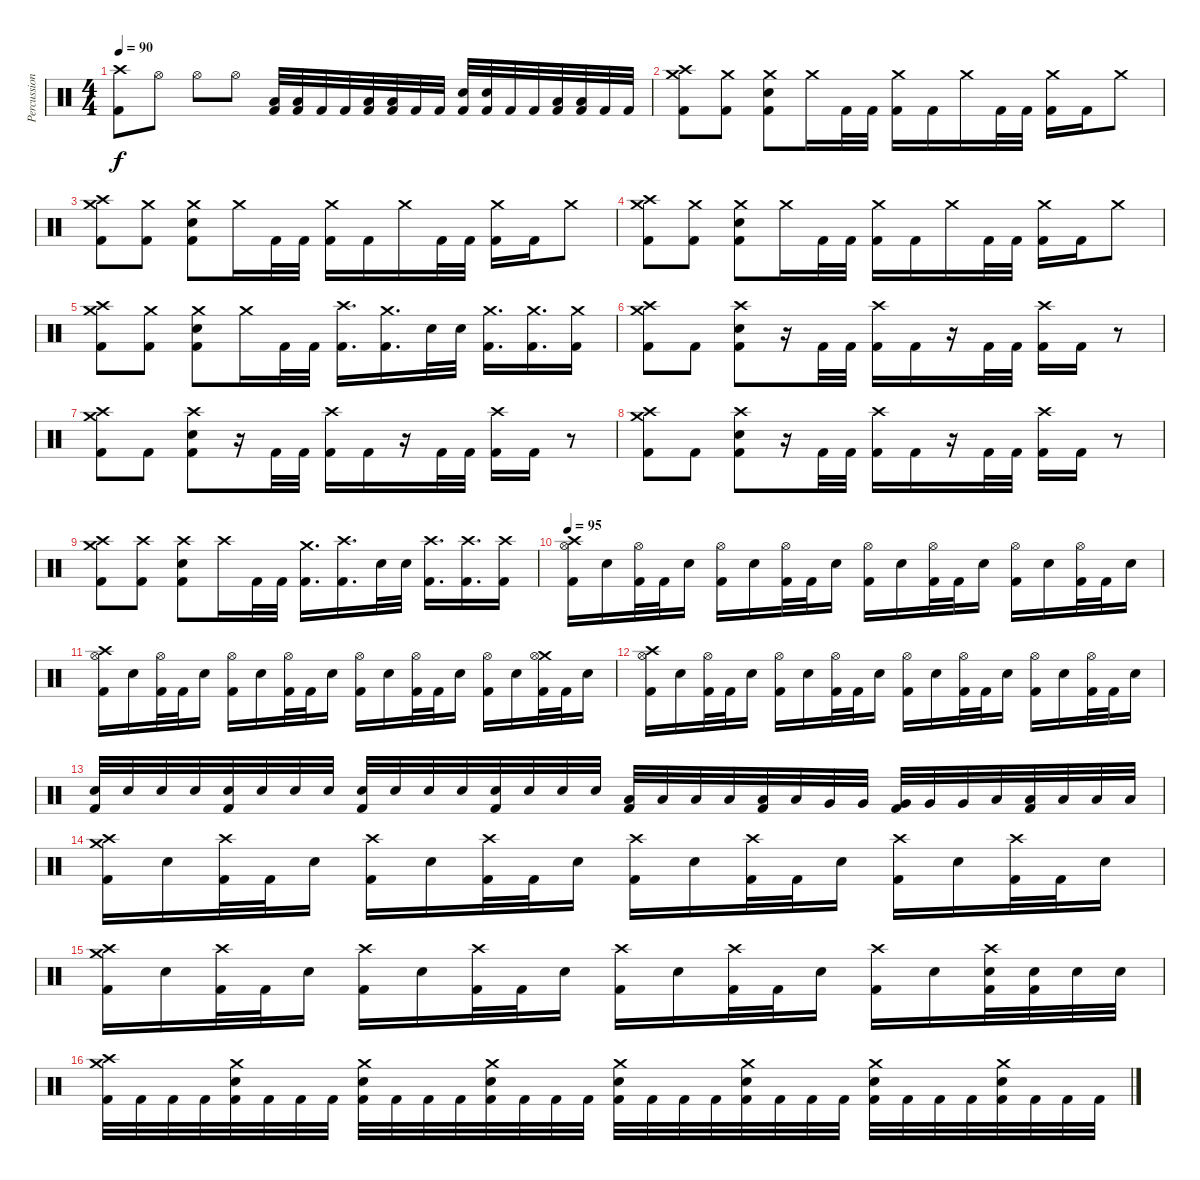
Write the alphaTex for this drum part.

\track ("Percussion" "Percussion") {instrument percussion}
\staff {score}
\articulation defaults
\ts (4 4)
\tempo 90
\clef neutral
\ks c
("Crash high (hit)" "Kick (hit) 2").8{dy f} "Hi-Hat (open)".8 "Hi-Hat (open)".8 "Hi-Hat (open)".8 ("Low Tom (hit)" "Kick (hit) 2").32 ("Low Tom (hit)" "Kick (hit) 2").32 "Kick (hit) 2".32 "Kick (hit) 2".32 ("Low Floor Tom (hit)" "Kick (hit) 2").32 ("Low Floor Tom (hit)" "Kick (hit) 2").32 "Kick (hit) 2".32 "Kick (hit) 2".32 ("Electric Snare (hit)" "Kick (hit) 2").32 ("Electric Snare (hit)" "Kick (hit) 2").32 "Kick (hit) 2".32 "Kick (hit) 2".32 ("Low Floor Tom (hit)" "Kick (hit) 2").32 ("Low Floor Tom (hit)" "Kick (hit) 2").32 "Kick (hit) 2".32 "Kick (hit) 2".32 |
("Crash high (hit)" "Crash medium (hit)" "Kick (hit) 2").8 ("Crash medium (hit)" "Kick (hit) 2").8 ("Crash medium (hit)" "Electric Snare (hit)" "Kick (hit) 2").8 "Crash medium (hit)".16 "Kick (hit) 2".32 "Kick (hit) 2".32 ("Crash medium (hit)" "Kick (hit) 2").16 "Kick (hit) 2".16 "Crash medium (hit)".16 "Kick (hit) 2".32 "Kick (hit) 2".32 ("Crash medium (hit)" "Kick (hit) 2").16 "Kick (hit) 2".16 "Crash medium (hit)".8 |
("Crash high (hit)" "Crash medium (hit)" "Kick (hit) 2").8 ("Crash medium (hit)" "Kick (hit) 2").8 ("Crash medium (hit)" "Electric Snare (hit)" "Kick (hit) 2").8 "Crash medium (hit)".16 "Kick (hit) 2".32 "Kick (hit) 2".32 ("Crash medium (hit)" "Kick (hit) 2").16 "Kick (hit) 2".16 "Crash medium (hit)".16 "Kick (hit) 2".32 "Kick (hit) 2".32 ("Crash medium (hit)" "Kick (hit) 2").16 "Kick (hit) 2".16 "Crash medium (hit)".8 |
("Crash high (hit)" "Crash medium (hit)" "Kick (hit) 2").8 ("Crash medium (hit)" "Kick (hit) 2").8 ("Crash medium (hit)" "Electric Snare (hit)" "Kick (hit) 2").8 "Crash medium (hit)".16 "Kick (hit) 2".32 "Kick (hit) 2".32 ("Crash medium (hit)" "Kick (hit) 2").16 "Kick (hit) 2".16 "Crash medium (hit)".16 "Kick (hit) 2".32 "Kick (hit) 2".32 ("Crash medium (hit)" "Kick (hit) 2").16 "Kick (hit) 2".16 "Crash medium (hit)".8 |
("Crash high (hit)" "Crash medium (hit)" "Kick (hit) 2").8 ("Crash medium (hit)" "Kick (hit) 2").8 ("Crash medium (hit)" "Electric Snare (hit)" "Kick (hit) 2").8 "Crash medium (hit)".16 "Kick (hit) 2".32 "Kick (hit) 2".32 ("Crash high (hit)" "Kick (hit) 2").16{d} ("Crash medium (hit)" "Kick (hit) 2").16{d} "Electric Snare (hit)".32 "Electric Snare (hit)".32 ("Crash medium (hit)" "Kick (hit) 2").16{d} ("Crash medium (hit)" "Kick (hit) 2").16{d} ("Crash medium (hit)" "Kick (hit) 2").16 |
("Crash medium (hit)" "Crash high (hit)" "Kick (hit) 2").8 "Kick (hit) 2".8 ("Crash high (hit)" "Electric Snare (hit)" "Kick (hit) 2").8 r.16 "Kick (hit) 2".32 "Kick (hit) 2".32 ("Crash high (hit)" "Kick (hit) 2").16 "Kick (hit) 2".16 r.16 "Kick (hit) 2".32 "Kick (hit) 2".32 ("Crash high (hit)" "Kick (hit) 2").16 "Kick (hit) 2".16 r.8 |
("Crash medium (hit)" "Crash high (hit)" "Kick (hit) 2").8 "Kick (hit) 2".8 ("Crash high (hit)" "Electric Snare (hit)" "Kick (hit) 2").8 r.16 "Kick (hit) 2".32 "Kick (hit) 2".32 ("Crash high (hit)" "Kick (hit) 2").16 "Kick (hit) 2".16 r.16 "Kick (hit) 2".32 "Kick (hit) 2".32 ("Crash high (hit)" "Kick (hit) 2").16 "Kick (hit) 2".16 r.8 |
("Crash medium (hit)" "Crash high (hit)" "Kick (hit) 2").8 "Kick (hit) 2".8 ("Crash high (hit)" "Electric Snare (hit)" "Kick (hit) 2").8 r.16 "Kick (hit) 2".32 "Kick (hit) 2".32 ("Crash high (hit)" "Kick (hit) 2").16 "Kick (hit) 2".16 r.16 "Kick (hit) 2".32 "Kick (hit) 2".32 ("Crash high (hit)" "Kick (hit) 2").16 "Kick (hit) 2".16 r.8 |
("Crash medium (hit)" "Crash high (hit)" "Kick (hit) 2").8 ("Crash high (hit)" "Kick (hit) 2").8 ("Crash high (hit)" "Electric Snare (hit)" "Kick (hit) 2").8 "Crash high (hit)".16 "Kick (hit) 2".32 "Kick (hit) 2".32 ("Crash medium (hit)" "Kick (hit) 2").16{d} ("Crash high (hit)" "Kick (hit) 2").16{d} "Electric Snare (hit)".32 "Electric Snare (hit)".32 ("Crash high (hit)" "Kick (hit) 2").16{d} ("Crash high (hit)" "Kick (hit) 2").16{d} ("Crash high (hit)" "Kick (hit) 2").16 |
\tempo 95
("Crash high (hit)" "Hi-Hat (open)" "Kick (hit) 2").16 "Electric Snare (hit)".16 ("Hi-Hat (open)" "Kick (hit) 2").32 "Kick (hit) 2".32 "Electric Snare (hit)".16 ("Hi-Hat (open)" "Kick (hit) 2").16 "Electric Snare (hit)".16 ("Hi-Hat (open)" "Kick (hit) 2").32 "Kick (hit) 2".32 "Electric Snare (hit)".16 ("Hi-Hat (open)" "Kick (hit) 2").16 "Electric Snare (hit)".16 ("Hi-Hat (open)" "Kick (hit) 2").32 "Kick (hit) 2".32 "Electric Snare (hit)".16 ("Hi-Hat (open)" "Kick (hit) 2").16 "Electric Snare (hit)".16 ("Hi-Hat (open)" "Kick (hit) 2").32 "Kick (hit) 2".32 "Electric Snare (hit)".16 |
("Crash high (hit)" "Hi-Hat (open)" "Kick (hit) 2").16 "Electric Snare (hit)".16 ("Hi-Hat (open)" "Kick (hit) 2").32 "Kick (hit) 2".32 "Electric Snare (hit)".16 ("Hi-Hat (open)" "Kick (hit) 2").16 "Electric Snare (hit)".16 ("Hi-Hat (open)" "Kick (hit) 2").32 "Kick (hit) 2".32 "Electric Snare (hit)".16 ("Hi-Hat (open)" "Kick (hit) 2").16 "Electric Snare (hit)".16 ("Hi-Hat (open)" "Kick (hit) 2").32 "Kick (hit) 2".32 "Electric Snare (hit)".16 ("Hi-Hat (open)" "Kick (hit) 2").16 "Electric Snare (hit)".16 ("Crash medium (hit)" "Hi-Hat (open)" "Kick (hit) 2").32 "Kick (hit) 2".32 "Electric Snare (hit)".16 |
("Crash high (hit)" "Hi-Hat (open)" "Kick (hit) 2").16 "Electric Snare (hit)".16 ("Hi-Hat (open)" "Kick (hit) 2").32 "Kick (hit) 2".32 "Electric Snare (hit)".16 ("Hi-Hat (open)" "Kick (hit) 2").16 "Electric Snare (hit)".16 ("Hi-Hat (open)" "Kick (hit) 2").32 "Kick (hit) 2".32 "Electric Snare (hit)".16 ("Hi-Hat (open)" "Kick (hit) 2").16 "Electric Snare (hit)".16 ("Hi-Hat (open)" "Kick (hit) 2").32 "Kick (hit) 2".32 "Electric Snare (hit)".16 ("Hi-Hat (open)" "Kick (hit) 2").16 "Electric Snare (hit)".16 ("Hi-Hat (open)" "Kick (hit) 2").32 "Kick (hit) 2".32 "Electric Snare (hit)".16 |
("Electric Snare (hit)" "Kick (hit) 2").32 "Electric Snare (hit)".32 "Electric Snare (hit)".32 "Electric Snare (hit)".32 ("Electric Snare (hit)" "Kick (hit) 2").32 "Electric Snare (hit)".32 "Electric Snare (hit)".32 "Electric Snare (hit)".32 ("Electric Snare (hit)" "Kick (hit) 2").32 "Electric Snare (hit)".32 "Electric Snare (hit)".32 "Electric Snare (hit)".32 ("Electric Snare (hit)" "Kick (hit) 2").32 "Electric Snare (hit)".32 "Electric Snare (hit)".32 "Electric Snare (hit)".32 ("Low Tom (hit)" "Kick (hit) 2").32 "Low Tom (hit)".32 "Low Tom (hit)".32 "Low Tom (hit)".32 ("Low Tom (hit)" "Kick (hit) 2").32 "Low Tom (hit)".32 "Very Low Tom (hit)".32 "Very Low Tom (hit)".32 ("Very Low Tom (hit)" "Kick (hit) 2").32 "Very Low Tom (hit)".32 "Very Low Tom (hit)".32 "Low Floor Tom (hit)".32 ("Low Floor Tom (hit)" "Kick (hit) 2").32 "Low Floor Tom (hit)".32 "Low Floor Tom (hit)".32 "Low Floor Tom (hit)".32 |
("Crash medium (hit)" "Crash high (hit)" "Kick (hit) 2").16 "Electric Snare (hit)".16 ("Crash high (hit)" "Kick (hit) 2").32 "Kick (hit) 2".32 "Electric Snare (hit)".16 ("Crash high (hit)" "Kick (hit) 2").16 "Electric Snare (hit)".16 ("Crash high (hit)" "Kick (hit) 2").32 "Kick (hit) 2".32 "Electric Snare (hit)".16 ("Crash high (hit)" "Kick (hit) 2").16 "Electric Snare (hit)".16 ("Crash high (hit)" "Kick (hit) 2").32 "Kick (hit) 2".32 "Electric Snare (hit)".16 ("Crash high (hit)" "Kick (hit) 2").16 "Electric Snare (hit)".16 ("Crash high (hit)" "Kick (hit) 2").32 "Kick (hit) 2".32 "Electric Snare (hit)".16 |
("Crash medium (hit)" "Crash high (hit)" "Kick (hit) 2").16 "Electric Snare (hit)".16 ("Crash high (hit)" "Kick (hit) 2").32 "Kick (hit) 2".32 "Electric Snare (hit)".16 ("Crash high (hit)" "Kick (hit) 2").16 "Electric Snare (hit)".16 ("Crash high (hit)" "Kick (hit) 2").32 "Kick (hit) 2".32 "Electric Snare (hit)".16 ("Crash high (hit)" "Kick (hit) 2").16 "Electric Snare (hit)".16 ("Crash high (hit)" "Kick (hit) 2").32 "Kick (hit) 2".32 "Electric Snare (hit)".16 ("Crash high (hit)" "Kick (hit) 2").16 "Electric Snare (hit)".16 ("Crash high (hit)" "Electric Snare (hit)" "Kick (hit) 2").32 ("Electric Snare (hit)" "Kick (hit) 2").32 "Electric Snare (hit)".32 "Electric Snare (hit)".32 |
("Crash high (hit)" "Crash medium (hit)" "Kick (hit) 2").32 "Kick (hit) 2".32 "Kick (hit) 2".32 "Kick (hit) 2".32 ("Crash medium (hit)" "Electric Snare (hit)" "Kick (hit) 2").32 "Kick (hit) 2".32 "Kick (hit) 2".32 "Kick (hit) 2".32 ("Crash medium (hit)" "Electric Snare (hit)" "Kick (hit) 2").32 "Kick (hit) 2".32 "Kick (hit) 2".32 "Kick (hit) 2".32 ("Crash medium (hit)" "Electric Snare (hit)" "Kick (hit) 2").32 "Kick (hit) 2".32 "Kick (hit) 2".32 "Kick (hit) 2".32 ("Crash medium (hit)" "Electric Snare (hit)" "Kick (hit) 2").32 "Kick (hit) 2".32 "Kick (hit) 2".32 "Kick (hit) 2".32 ("Crash medium (hit)" "Electric Snare (hit)" "Kick (hit) 2").32 "Kick (hit) 2".32 "Kick (hit) 2".32 "Kick (hit) 2".32 ("Crash medium (hit)" "Electric Snare (hit)" "Kick (hit) 2").32 "Kick (hit) 2".32 "Kick (hit) 2".32 "Kick (hit) 2".32 ("Crash medium (hit)" "Electric Snare (hit)" "Kick (hit) 2").32 "Kick (hit) 2".32 "Kick (hit) 2".32 "Kick (hit) 2".32
